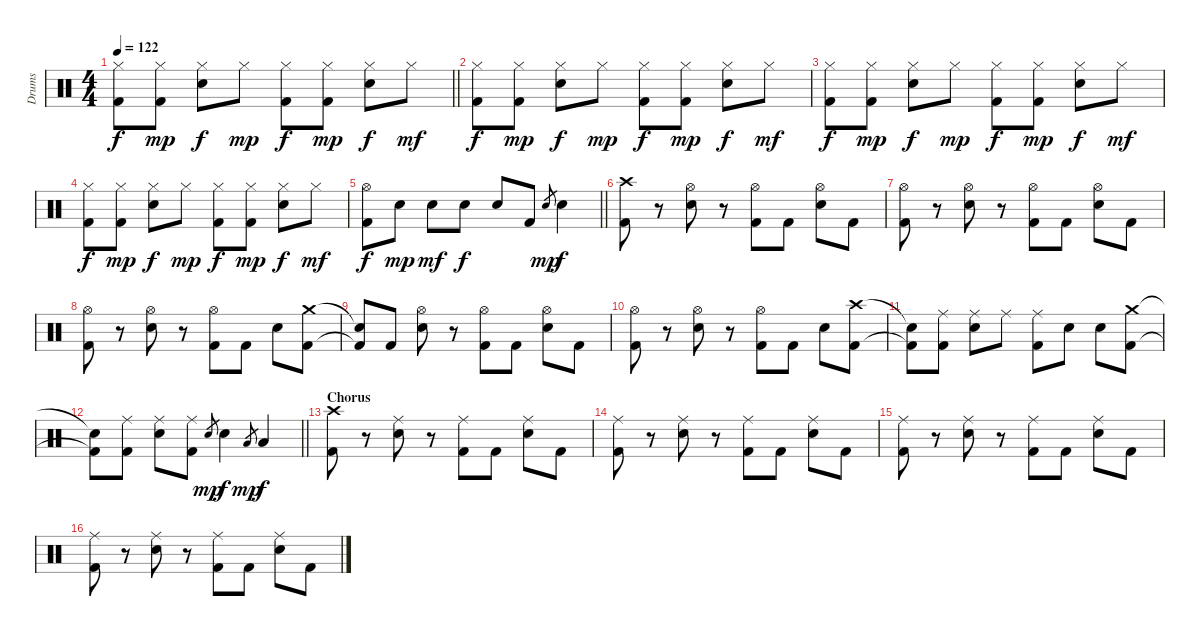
\track ("Drums" "Drums") {instrument percussion}
\staff {score}
\articulation defaults
\ts (4 4)
\tempo 122
\clef neutral
\barLineRight lightlight
\ks c
("Kick (hit) 2" "Hi-Hat (closed)").8{dy f} ("Kick (hit) 2" "Hi-Hat (closed)").8{dy mp} ("Snare (hit) 2" "Hi-Hat (closed)").8{dy f} "Hi-Hat (closed)".8{dy mp} ("Kick (hit) 2" "Hi-Hat (closed)").8{dy f} ("Kick (hit) 2" "Hi-Hat (closed)").8{dy mp} ("Snare (hit) 2" "Hi-Hat (closed)").8{dy f} "Hi-Hat (closed)".8{dy mf} |
("Kick (hit) 2" "Hi-Hat (closed)").8{dy f} ("Kick (hit) 2" "Hi-Hat (closed)").8{dy mp} ("Snare (hit) 2" "Hi-Hat (closed)").8{dy f} "Hi-Hat (closed)".8{dy mp} ("Kick (hit) 2" "Hi-Hat (closed)").8{dy f} ("Kick (hit) 2" "Hi-Hat (closed)").8{dy mp} ("Snare (hit) 2" "Hi-Hat (closed)").8{dy f} "Hi-Hat (closed)".8{dy mf} |
("Kick (hit) 2" "Hi-Hat (closed)").8{dy f} ("Kick (hit) 2" "Hi-Hat (closed)").8{dy mp} ("Snare (hit) 2" "Hi-Hat (closed)").8{dy f} "Hi-Hat (closed)".8{dy mp} ("Kick (hit) 2" "Hi-Hat (closed)").8{dy f} ("Kick (hit) 2" "Hi-Hat (closed)").8{dy mp} ("Snare (hit) 2" "Hi-Hat (closed)").8{dy f} "Hi-Hat (closed)".8{dy mf} |
("Kick (hit) 2" "Hi-Hat (closed)").8{dy f} ("Kick (hit) 2" "Hi-Hat (closed)").8{dy mp} ("Snare (hit) 2" "Hi-Hat (closed)").8{dy f} "Hi-Hat (closed)".8{dy mp} ("Kick (hit) 2" "Hi-Hat (closed)").8{dy f} ("Kick (hit) 2" "Hi-Hat (closed)").8{dy mp} ("Snare (hit) 2" "Hi-Hat (closed)").8{dy f} "Hi-Hat (closed)".8{dy mf} |
\barLineRight lightlight
("Kick (hit) 2" "Hi-Hat (open)").8{dy f} "Snare (hit) 2".8{dy mp} "Snare (hit) 2".8{dy mf} "Snare (hit) 2".8{dy f} "Snare (hit) 2".8 "Kick (hit) 2".8 "Snare (hit) 2".8{gr dy mp} "Snare (hit) 2".4{dy f} |
\section ("" " ")
("Kick (hit) 2" "Crash high (hit)").8 r.8 ("Snare (hit) 2" "Hi-Hat (open)").8 r.8 ("Kick (hit) 2" "Hi-Hat (open)").8 "Kick (hit) 2".8 ("Snare (hit) 2" "Hi-Hat (open)").8 "Kick (hit) 2".8 |
("Kick (hit) 2" "Hi-Hat (open)").8 r.8 ("Snare (hit) 2" "Hi-Hat (open)").8 r.8 ("Kick (hit) 2" "Hi-Hat (open)").8 "Kick (hit) 2".8 ("Snare (hit) 2" "Hi-Hat (open)").8 "Kick (hit) 2".8 |
("Kick (hit) 2" "Hi-Hat (open)").8 r.8 ("Snare (hit) 2" "Hi-Hat (open)").8 r.8 ("Kick (hit) 2" "Hi-Hat (open)").8 "Kick (hit) 2".8 "Snare (hit) 2".8 ("Kick (hit) 2" "Crash medium (hit)").8 |
("Kick (hit) 2"{t} "Snare (hit)"{t}).8 "Kick (hit) 2".8 ("Snare (hit) 2" "Hi-Hat (open)").8 r.8 ("Kick (hit) 2" "Hi-Hat (open)").8 "Kick (hit) 2".8 ("Snare (hit) 2" "Hi-Hat (open)").8 "Kick (hit) 2".8 |
("Kick (hit) 2" "Hi-Hat (open)").8 r.8 ("Snare (hit) 2" "Hi-Hat (open)").8 r.8 ("Kick (hit) 2" "Hi-Hat (open)").8 "Kick (hit) 2".8 "Snare (hit) 2".8 ("Kick (hit) 2" "Crash high (hit)").8 |
("Kick (hit) 2"{t} "Snare (hit)"{t}).8 ("Kick (hit) 2" "Ride (middle)").8 ("Snare (hit) 2" "Ride (middle)").8 "Ride (middle)".8 ("Kick (hit) 2" "Ride (middle)").8 "Snare (hit) 2".8 "Snare (hit) 2".8 ("Kick (hit) 2" "Crash medium (hit)").8 |
\barLineRight lightlight
("Kick (hit) 2"{t} "Snare (hit)"{t}).8 ("Kick (hit) 2" "Ride (middle)").8 ("Snare (hit) 2" "Ride (middle)").8 ("Kick (hit) 2" "Ride (middle)").8 "Snare (hit) 2".8{gr dy mp} "Snare (hit) 2".4{dy f} "Low Tom (hit)".8{gr dy mp} "Low Tom (hit)".4{dy f} |
\section ("" "Chorus")
("Kick (hit) 2" "Crash high (hit)").8 r.8 ("Snare (hit) 2" "Ride (middle)").8 r.8 ("Kick (hit) 2" "Ride (middle)").8 "Kick (hit) 2".8 ("Snare (hit) 2" "Ride (middle)").8 "Kick (hit) 2".8 |
("Kick (hit) 2" "Ride (middle)").8 r.8 ("Snare (hit) 2" "Ride (middle)").8 r.8 ("Kick (hit) 2" "Ride (middle)").8 "Kick (hit) 2".8 ("Snare (hit) 2" "Ride (middle)").8 "Kick (hit) 2".8 |
("Kick (hit) 2" "Ride (middle)").8 r.8 ("Snare (hit) 2" "Ride (middle)").8 r.8 ("Kick (hit) 2" "Ride (middle)").8 "Kick (hit) 2".8 ("Snare (hit) 2" "Ride (middle)").8 "Kick (hit) 2".8 |
("Kick (hit) 2" "Ride (middle)").8 r.8 ("Snare (hit) 2" "Ride (middle)").8 r.8 ("Kick (hit) 2" "Ride (middle)").8 "Kick (hit) 2".8 ("Snare (hit) 2" "Ride (middle)").8 "Kick (hit) 2".8
